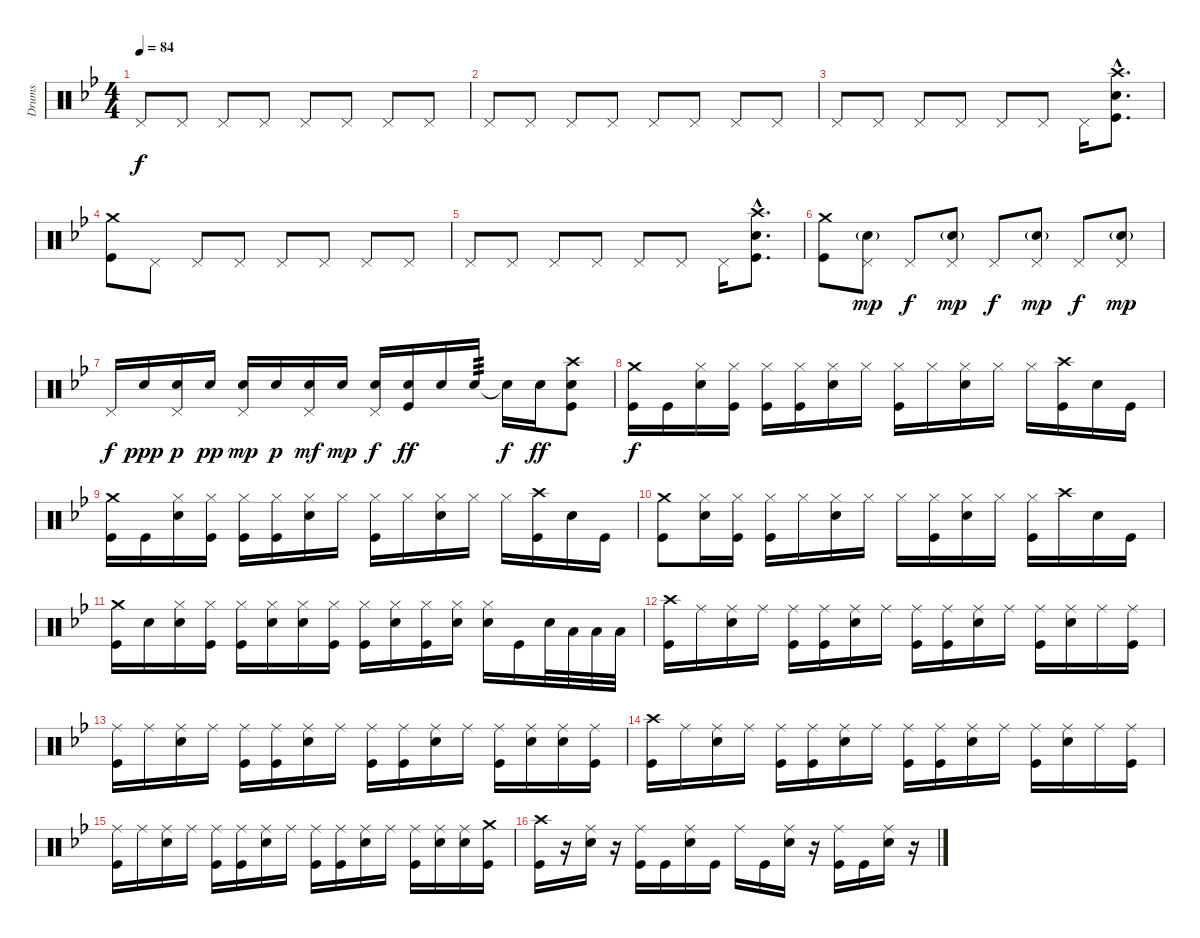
\track ("Drums" "Drums") {instrument percussion}
\staff {score}
\articulation defaults
\ts (4 4)
\tempo 84
\clef neutral
\ks bb "Pedal Hi-Hat (hit)".8{dy f} "Pedal Hi-Hat (hit)".8 "Pedal Hi-Hat (hit)".8 "Pedal Hi-Hat (hit)".8 "Pedal Hi-Hat (hit)".8 "Pedal Hi-Hat (hit)".8 "Pedal Hi-Hat (hit)".8 "Pedal Hi-Hat (hit)".8
|
"Pedal Hi-Hat (hit)".8 "Pedal Hi-Hat (hit)".8 "Pedal Hi-Hat (hit)".8 "Pedal Hi-Hat (hit)".8 "Pedal Hi-Hat (hit)".8 "Pedal Hi-Hat (hit)".8 "Pedal Hi-Hat (hit)".8 "Pedal Hi-Hat (hit)".8 |
"Pedal Hi-Hat (hit)".8 "Pedal Hi-Hat (hit)".8 "Pedal Hi-Hat (hit)".8 "Pedal Hi-Hat (hit)".8 "Pedal Hi-Hat (hit)".8 "Pedal Hi-Hat (hit)".8 "Pedal Hi-Hat (hit)".16 ("Crash high (hit)"{hac} "Electric Snare (hit)"{hac} "Kick (hit)"{hac}).8{d volume 13} |
("Crash medium (hit)" "Kick (hit)").8 "Pedal Hi-Hat (hit)".8{volume 10} "Pedal Hi-Hat (hit)".8 "Pedal Hi-Hat (hit)".8 "Pedal Hi-Hat (hit)".8 "Pedal Hi-Hat (hit)".8 "Pedal Hi-Hat (hit)".8 "Pedal Hi-Hat (hit)".8 |
"Pedal Hi-Hat (hit)".8 "Pedal Hi-Hat (hit)".8 "Pedal Hi-Hat (hit)".8 "Pedal Hi-Hat (hit)".8 "Pedal Hi-Hat (hit)".8 "Pedal Hi-Hat (hit)".8 "Pedal Hi-Hat (hit)".16 ("Crash high (hit)"{hac} "Electric Snare (hit)"{hac} "Kick (hit)"{hac}).8{d volume 13} |
("Crash medium (hit)" "Kick (hit)").8 ("Pedal Hi-Hat (hit)" "Electric Snare (hit)"{g}).8{dy mp volume 10} "Pedal Hi-Hat (hit)".8{dy f} ("Pedal Hi-Hat (hit)" "Electric Snare (hit)"{g}).8{dy mp} "Pedal Hi-Hat (hit)".8{dy f} ("Pedal Hi-Hat (hit)" "Electric Snare (hit)"{g}).8{dy mp} "Pedal Hi-Hat (hit)".8{dy f} ("Pedal Hi-Hat (hit)" "Electric Snare (hit)"{g}).8{dy mp} |
"Pedal Hi-Hat (hit)".16{dy f} "Electric Snare (hit)".16{dy ppp} ("Pedal Hi-Hat (hit)" "Electric Snare (hit)").16{dy p} "Electric Snare (hit)".16{dy pp} ("Pedal Hi-Hat (hit)" "Electric Snare (hit)").16{dy mp} "Electric Snare (hit)".16{dy p} ("Pedal Hi-Hat (hit)" "Electric Snare (hit)").16{dy mf} "Electric Snare (hit)".16{dy mp} ("Pedal Hi-Hat (hit)" "Electric Snare (hit)").16{dy f} ("Electric Snare (hit)" "Kick (hit)").16{dy ff} "Electric Snare (hit)".16 "Electric Snare (hit)".16{tp 3} "Snare (hit)"{t}.16{dy f} "Electric Snare (hit)".16{dy ff} ("Crash high (hit)" "Electric Snare (hit)" "Kick (hit)").8 |
("Crash medium (hit)" "Kick (hit)").16{dy f} "Kick (hit)".16 ("Hi-Hat (closed)" "Electric Snare (hit)").16 ("Hi-Hat (closed)" "Kick (hit)").16 ("Hi-Hat (closed)" "Kick (hit)").16 ("Hi-Hat (closed)" "Kick (hit)").16 ("Hi-Hat (closed)" "Electric Snare (hit)").16 "Hi-Hat (closed)".16 ("Hi-Hat (closed)" "Kick (hit)").16 "Hi-Hat (closed)".16 ("Hi-Hat (closed)" "Electric Snare (hit)").16 "Hi-Hat (closed)".16 "Hi-Hat (closed)".16 ("Crash high (hit)" "Kick (hit)").16 "Electric Snare (hit)".16 "Kick (hit)".16 |
("Crash medium (hit)" "Kick (hit)").16 "Kick (hit)".16 ("Hi-Hat (closed)" "Electric Snare (hit)").16 ("Hi-Hat (closed)" "Kick (hit)").16 ("Hi-Hat (closed)" "Kick (hit)").16 ("Hi-Hat (closed)" "Kick (hit)").16 ("Hi-Hat (closed)" "Electric Snare (hit)").16 "Hi-Hat (closed)".16 ("Hi-Hat (closed)" "Kick (hit)").16 "Hi-Hat (closed)".16 ("Hi-Hat (closed)" "Electric Snare (hit)").16 "Hi-Hat (closed)".16 "Hi-Hat (closed)".16 ("Crash high (hit)" "Kick (hit)").16 "Electric Snare (hit)".16 "Kick (hit)".16 |
("Crash medium (hit)" "Kick (hit)").8 ("Hi-Hat (closed)" "Electric Snare (hit)").16 ("Hi-Hat (closed)" "Kick (hit)").16 ("Hi-Hat (closed)" "Kick (hit)").16 "Hi-Hat (closed)".16 ("Hi-Hat (closed)" "Electric Snare (hit)").16 "Hi-Hat (closed)".16 "Hi-Hat (closed)".16 ("Hi-Hat (closed)" "Kick (hit)").16 ("Hi-Hat (closed)" "Electric Snare (hit)").16 "Hi-Hat (closed)".16 ("Hi-Hat (closed)" "Kick (hit)").16 "Crash high (hit)".16 "Electric Snare (hit)".16 "Kick (hit)".16 |
("Crash medium (hit)" "Kick (hit)").16 "Electric Snare (hit)".16 ("Hi-Hat (closed)" "Electric Snare (hit)").16 ("Hi-Hat (closed)" "Kick (hit)").16 ("Hi-Hat (closed)" "Kick (hit)").16 ("Hi-Hat (closed)" "Electric Snare (hit)").16 ("Hi-Hat (closed)" "Electric Snare (hit)").16 ("Hi-Hat (closed)" "Kick (hit)").16 ("Hi-Hat (closed)" "Kick (hit)").16 ("Hi-Hat (closed)" "Electric Snare (hit)").16 ("Hi-Hat (closed)" "Kick (hit)").16 ("Hi-Hat (closed)" "Electric Snare (hit)").16 ("Hi-Hat (closed)" "Electric Snare (hit)").16 "Kick (hit)".16 "Electric Snare (hit)".32 "Low Tom (hit)".32 "Low Tom (hit)".32 "Low Floor Tom (hit)".32 |
("Crash high (hit)" "Kick (hit)").16 "Ride (middle)".16 ("Ride (middle)" "Electric Snare (hit)").16 "Ride (middle)".16 ("Ride (middle)" "Kick (hit)").16 ("Ride (middle)" "Kick (hit)").16 ("Ride (middle)" "Electric Snare (hit)").16 "Ride (middle)".16 ("Ride (middle)" "Kick (hit)").16 ("Ride (middle)" "Kick (hit)").16 ("Ride (middle)" "Electric Snare (hit)").16 "Ride (middle)".16 ("Ride (middle)" "Kick (hit)").16 ("Ride (middle)" "Electric Snare (hit)").16 "Ride (middle)".16 ("Ride (middle)" "Kick (hit)").16 |
("Ride (middle)" "Kick (hit)").16 "Ride (middle)".16 ("Ride (middle)" "Electric Snare (hit)").16 "Ride (middle)".16 ("Ride (middle)" "Kick (hit)").16 ("Ride (middle)" "Kick (hit)").16 ("Ride (middle)" "Electric Snare (hit)").16 "Ride (middle)".16 ("Ride (middle)" "Kick (hit)").16 ("Ride (middle)" "Kick (hit)").16 ("Ride (middle)" "Electric Snare (hit)").16 "Ride (middle)".16 ("Ride (middle)" "Kick (hit)").16 ("Ride (middle)" "Electric Snare (hit)").16 ("Ride (middle)" "Electric Snare (hit)").16 ("Ride (middle)" "Kick (hit)").16 |
("Crash high (hit)" "Kick (hit)").16{volume 10} "Ride (middle)".16 ("Ride (middle)" "Electric Snare (hit)").16 "Ride (middle)".16 ("Ride (middle)" "Kick (hit)").16 ("Ride (middle)" "Kick (hit)").16 ("Ride (middle)" "Electric Snare (hit)").16 "Ride (middle)".16 ("Ride (middle)" "Kick (hit)").16 ("Ride (middle)" "Kick (hit)").16 ("Ride (middle)" "Electric Snare (hit)").16 "Ride (middle)".16 ("Ride (middle)" "Kick (hit)").16 ("Ride (middle)" "Electric Snare (hit)").16 "Ride (middle)".16 ("Ride (middle)" "Kick (hit)").16 |
("Ride (middle)" "Kick (hit)").16 "Ride (middle)".16 ("Ride (middle)" "Electric Snare (hit)").16 "Ride (middle)".16 ("Ride (middle)" "Kick (hit)").16 ("Ride (middle)" "Kick (hit)").16 ("Ride (middle)" "Electric Snare (hit)").16 "Ride (middle)".16 ("Ride (middle)" "Kick (hit)").16 ("Ride (middle)" "Kick (hit)").16 ("Ride (middle)" "Electric Snare (hit)").16 "Ride (middle)".16 ("Ride (middle)" "Kick (hit)").16 ("Ride (middle)" "Electric Snare (hit)").16 ("Ride (middle)" "Electric Snare (hit)").16 ("Crash medium (hit)" "Kick (hit)").16 |
("Crash high (hit)" "Kick (hit)").16 r.16 ("Ride (middle)" "Electric Snare (hit)").16 r.16 ("Ride (middle)" "Kick (hit)").16 "Kick (hit)".16 ("Ride (middle)" "Electric Snare (hit)").16 "Kick (hit)".16 "Ride (middle)".16 "Kick (hit)".16 ("Ride (middle)" "Electric Snare (hit)").16 r.16 ("Ride (middle)" "Kick (hit)").16 "Kick (hit)".16 ("Ride (middle)" "Electric Snare (hit)").16 r.16
